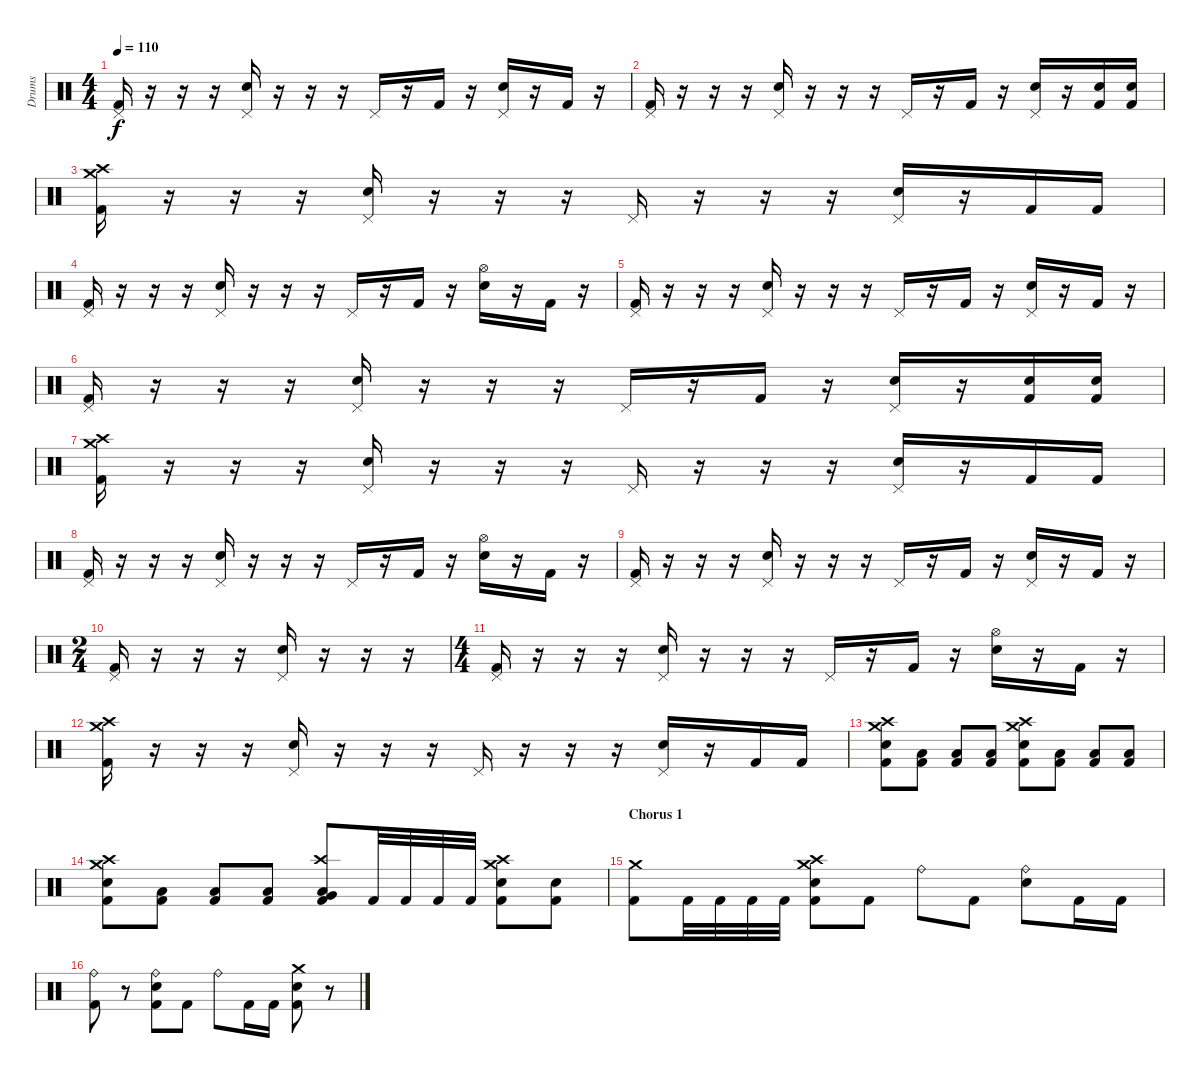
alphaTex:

\track ("Drums" "Drums") {instrument percussion}
\staff {score}
\articulation defaults
\ts (4 4)
\tempo 110
\clef neutral
\ks c
("Pedal Hi-Hat (hit)" "Kick (hit) 2").16{dy f} r.16 r.16 r.16 ("Pedal Hi-Hat (hit)" "Electric Snare (hit)").16 r.16 r.16 r.16 "Pedal Hi-Hat (hit)".16 r.16 "Kick (hit) 2".16 r.16 ("Pedal Hi-Hat (hit)" "Electric Snare (hit)").16 r.16 "Kick (hit) 2".16 r.16 |
("Pedal Hi-Hat (hit)" "Kick (hit) 2").16 r.16 r.16 r.16 ("Pedal Hi-Hat (hit)" "Electric Snare (hit)").16 r.16 r.16 r.16 "Pedal Hi-Hat (hit)".16 r.16 "Kick (hit) 2".16 r.16 ("Pedal Hi-Hat (hit)" "Electric Snare (hit)").16 r.16 ("Electric Snare (hit)" "Kick (hit) 2").16 ("Electric Snare (hit)" "Kick (hit) 2").16 |
("Crash high (hit)" "Crash medium (hit)" "Kick (hit) 2").16 r.16 r.16 r.16 ("Pedal Hi-Hat (hit)" "Electric Snare (hit)").16 r.16 r.16 r.16 "Pedal Hi-Hat (hit)".16 r.16 r.16 r.16 ("Pedal Hi-Hat (hit)" "Electric Snare (hit)").16 r.16 "Kick (hit) 2".16 "Kick (hit) 2".16 |
("Pedal Hi-Hat (hit)" "Kick (hit) 2").16 r.16 r.16 r.16 ("Pedal Hi-Hat (hit)" "Electric Snare (hit)").16 r.16 r.16 r.16 "Pedal Hi-Hat (hit)".16 r.16 "Kick (hit) 2".16 r.16 ("Hi-Hat (open)" "Electric Snare (hit)").16 r.16 "Kick (hit) 2".16 r.16 |
("Pedal Hi-Hat (hit)" "Kick (hit) 2").16 r.16 r.16 r.16 ("Pedal Hi-Hat (hit)" "Electric Snare (hit)").16 r.16 r.16 r.16 "Pedal Hi-Hat (hit)".16 r.16 "Kick (hit) 2".16 r.16 ("Pedal Hi-Hat (hit)" "Electric Snare (hit)").16 r.16 "Kick (hit) 2".16 r.16 |
("Pedal Hi-Hat (hit)" "Kick (hit) 2").16 r.16 r.16 r.16 ("Pedal Hi-Hat (hit)" "Electric Snare (hit)").16 r.16 r.16 r.16 "Pedal Hi-Hat (hit)".16 r.16 "Kick (hit) 2".16 r.16 ("Pedal Hi-Hat (hit)" "Electric Snare (hit)").16 r.16 ("Electric Snare (hit)" "Kick (hit) 2").16 ("Electric Snare (hit)" "Kick (hit) 2").16 |
("Crash high (hit)" "Crash medium (hit)" "Kick (hit) 2").16 r.16 r.16 r.16 ("Pedal Hi-Hat (hit)" "Electric Snare (hit)").16 r.16 r.16 r.16 "Pedal Hi-Hat (hit)".16 r.16 r.16 r.16 ("Pedal Hi-Hat (hit)" "Electric Snare (hit)").16 r.16 "Kick (hit) 2".16 "Kick (hit) 2".16 |
("Pedal Hi-Hat (hit)" "Kick (hit) 2").16 r.16 r.16 r.16 ("Pedal Hi-Hat (hit)" "Electric Snare (hit)").16 r.16 r.16 r.16 "Pedal Hi-Hat (hit)".16 r.16 "Kick (hit) 2".16 r.16 ("Hi-Hat (open)" "Electric Snare (hit)").16 r.16 "Kick (hit) 2".16 r.16 |
("Pedal Hi-Hat (hit)" "Kick (hit) 2").16 r.16 r.16 r.16 ("Pedal Hi-Hat (hit)" "Electric Snare (hit)").16 r.16 r.16 r.16 "Pedal Hi-Hat (hit)".16 r.16 "Kick (hit) 2".16 r.16 ("Pedal Hi-Hat (hit)" "Electric Snare (hit)").16 r.16 "Kick (hit) 2".16 r.16 |
\ts (2 4)
("Pedal Hi-Hat (hit)" "Kick (hit) 2").16 r.16 r.16 r.16 ("Pedal Hi-Hat (hit)" "Electric Snare (hit)").16 r.16 r.16 r.16 |
\ts (4 4)
("Pedal Hi-Hat (hit)" "Kick (hit) 2").16 r.16 r.16 r.16 ("Pedal Hi-Hat (hit)" "Electric Snare (hit)").16 r.16 r.16 r.16 "Pedal Hi-Hat (hit)".16 r.16 "Kick (hit) 2".16 r.16 ("Hi-Hat (open)" "Electric Snare (hit)").16 r.16 "Kick (hit) 2".16 r.16 |
("Crash high (hit)" "Crash medium (hit)" "Kick (hit) 2").16 r.16 r.16 r.16 ("Pedal Hi-Hat (hit)" "Electric Snare (hit)").16 r.16 r.16 r.16 "Pedal Hi-Hat (hit)".16 r.16 r.16 r.16 ("Pedal Hi-Hat (hit)" "Electric Snare (hit)").16 r.16 "Kick (hit) 2".16 "Kick (hit) 2".16 |
("Crash high (hit)" "Crash medium (hit)" "Electric Snare (hit)" "Kick (hit) 2").8 ("Low Floor Tom (hit)" "Kick (hit) 2").8 ("Low Floor Tom (hit)" "Kick (hit) 2").8 ("Low Floor Tom (hit)" "Kick (hit) 2").8 ("Crash high (hit)" "Crash medium (hit)" "Electric Snare (hit)" "Kick (hit) 2").8 ("Low Floor Tom (hit)" "Kick (hit) 2").8 ("Low Floor Tom (hit)" "Kick (hit) 2").8 ("Low Floor Tom (hit)" "Kick (hit) 2").8 |
("Crash high (hit)" "Crash medium (hit)" "Electric Snare (hit)" "Kick (hit) 2").8 ("Low Floor Tom (hit)" "Kick (hit) 2").8 ("Low Floor Tom (hit)" "Kick (hit) 2").8 ("Low Floor Tom (hit)" "Kick (hit) 2").8 ("Crash high (hit)" "Very Low Tom (hit)" "Low Floor Tom (hit)" "Kick (hit) 2").8 "Kick (hit) 2".32 "Kick (hit) 2".32 "Kick (hit) 2".32 "Kick (hit) 2".32 ("Crash high (hit)" "Crash medium (hit)" "Electric Snare (hit)" "Kick (hit) 2").8 ("Electric Snare (hit)" "Kick (hit) 2").8 |
\section ("" "Chorus 1")
("Crash medium (hit)" "Kick (hit) 2").8 "Kick (hit) 2".32 "Kick (hit) 2".32 "Kick (hit) 2".32 "Kick (hit) 2".32 ("Crash high (hit)" "Crash medium (hit)" "Electric Snare (hit)" "Kick (hit) 2").8 "Kick (hit) 2".8 "Ride (bell)".8 "Kick (hit) 2".8 ("Ride (bell)" "Electric Snare (hit)").8 "Kick (hit) 2".16 "Kick (hit) 2".16 |
("Ride (bell)" "Kick (hit) 2").8 r.8 ("Ride (bell)" "Electric Snare (hit)" "Kick (hit) 2").8 "Kick (hit) 2".8 "Ride (bell)".8 "Kick (hit) 2".16 "Kick (hit) 2".16 ("Crash medium (hit)" "Electric Snare (hit)" "Kick (hit) 2").8 r.8
